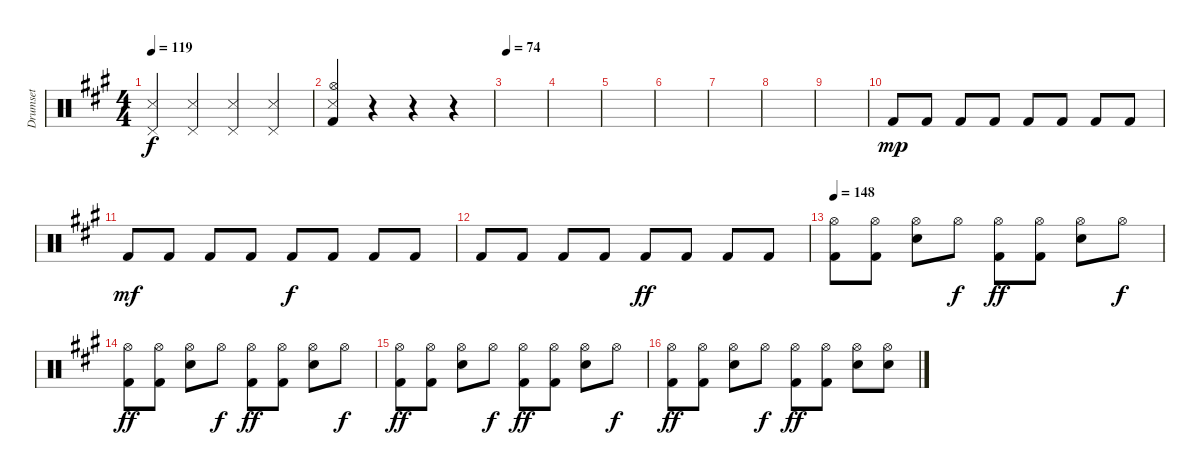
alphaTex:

\track ("Drumset" "Drumset") {instrument percussion}
\staff {score}
\articulation defaults
\ts (4 4)
\tempo 119
\clef neutral
\ks a
("Pedal Hi-Hat (hit)" "Snare (side stick) 3").4{dy f} ("Pedal Hi-Hat (hit)" "Snare (side stick) 3").4 ("Pedal Hi-Hat (hit)" "Snare (side stick) 3").4 ("Pedal Hi-Hat (hit)" "Snare (side stick) 3").4 |
("Hi-Hat (open)" "Snare (side stick) 3" "Kick (hit) 2").4 r.4 r.4 r.4 |
\tempo 74
|
|
|
|
|
|
|
"Kick (hit) 2".8{dy mp} "Kick (hit) 2".8 "Kick (hit) 2".8 "Kick (hit) 2".8 "Kick (hit) 2".8 "Kick (hit) 2".8 "Kick (hit) 2".8 "Kick (hit) 2".8 |
"Kick (hit) 2".8{dy mf} "Kick (hit) 2".8 "Kick (hit) 2".8 "Kick (hit) 2".8 "Kick (hit) 2".8{dy f} "Kick (hit) 2".8 "Kick (hit) 2".8 "Kick (hit) 2".8 |
"Kick (hit) 2".8 "Kick (hit) 2".8 "Kick (hit) 2".8 "Kick (hit) 2".8 "Kick (hit) 2".8{dy ff} "Kick (hit) 2".8 "Kick (hit) 2".8 "Kick (hit) 2".8 |
\tempo 148
("Hi-Hat (open)" "Kick (hit) 2").8 ("Hi-Hat (open)" "Kick (hit) 2").8 ("Hi-Hat (open)" "Electric Snare (hit)").8 "Hi-Hat (open)".8{dy f} ("Hi-Hat (open)" "Kick (hit) 2").8{dy ff} ("Hi-Hat (open)" "Kick (hit) 2").8 ("Hi-Hat (open)" "Electric Snare (hit)").8 "Hi-Hat (open)".8{dy f} |
("Hi-Hat (open)" "Kick (hit) 2").8{dy ff} ("Hi-Hat (open)" "Kick (hit) 2").8 ("Hi-Hat (open)" "Electric Snare (hit)").8 "Hi-Hat (open)".8{dy f} ("Hi-Hat (open)" "Kick (hit) 2").8{dy ff} ("Hi-Hat (open)" "Kick (hit) 2").8 ("Hi-Hat (open)" "Electric Snare (hit)").8 "Hi-Hat (open)".8{dy f} |
("Hi-Hat (open)" "Kick (hit) 2").8{dy ff} ("Hi-Hat (open)" "Kick (hit) 2").8 ("Hi-Hat (open)" "Electric Snare (hit)").8 "Hi-Hat (open)".8{dy f} ("Hi-Hat (open)" "Kick (hit) 2").8{dy ff} ("Hi-Hat (open)" "Kick (hit) 2").8 ("Hi-Hat (open)" "Electric Snare (hit)").8 "Hi-Hat (open)".8{dy f} |
("Hi-Hat (open)" "Kick (hit) 2").8{dy ff} ("Hi-Hat (open)" "Kick (hit) 2").8 ("Hi-Hat (open)" "Electric Snare (hit)").8 "Hi-Hat (open)".8{dy f} ("Hi-Hat (open)" "Kick (hit) 2").8{dy ff} ("Hi-Hat (open)" "Kick (hit) 2").8 ("Hi-Hat (open)" "Electric Snare (hit)").8 ("Hi-Hat (open)" "Electric Snare (hit)").8
